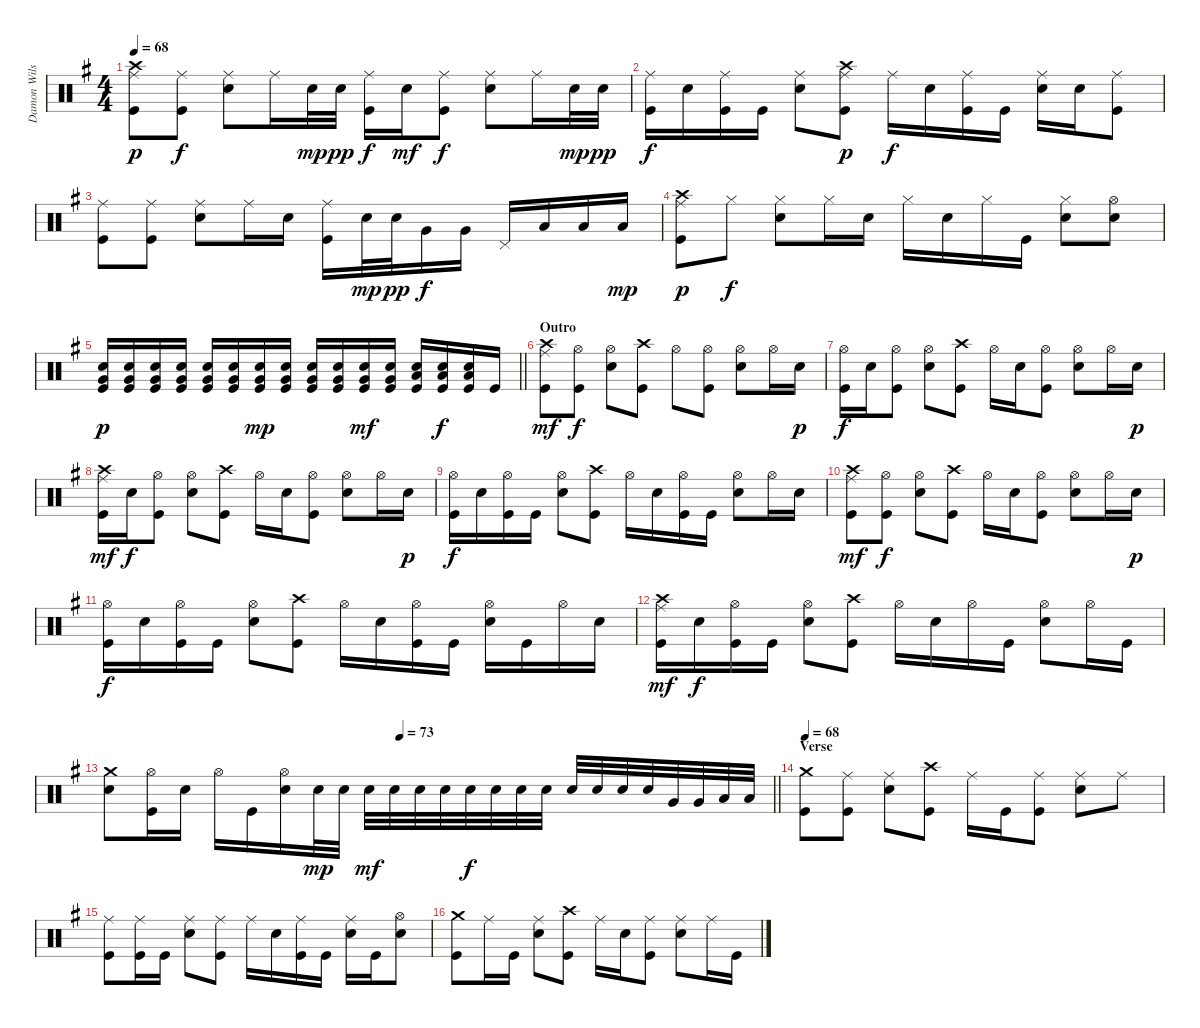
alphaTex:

\track ("Damon Wilson" "Damon Wils") {instrument percussion}
\staff {score}
\articulation defaults
\ts (4 4)
\tempo 68
\clef neutral
\ks g
("Ride (middle)" "Crash high (hit)" "Kick (hit)").8{dy p} ("Ride (middle)" "Kick (hit)").8{dy f} ("Ride (middle)" "Electric Snare (hit)").8 "Ride (middle)".16 "Electric Snare (hit)".32{dy mp} "Electric Snare (hit)".32{dy pp} ("Ride (middle)" "Kick (hit)").16{dy f} "Electric Snare (hit)".16{dy mf} ("Ride (middle)" "Kick (hit)").8{dy f} ("Ride (middle)" "Electric Snare (hit)").8 "Ride (middle)".16 "Electric Snare (hit)".32{dy mp} "Electric Snare (hit)".32{dy pp} |
("Ride (middle)" "Kick (hit)").16{dy f} "Electric Snare (hit)".16 ("Ride (middle)" "Kick (hit)").16 "Kick (hit)".16 ("Ride (middle)" "Electric Snare (hit)").8 ("Ride (middle)" "Crash high (hit)" "Kick (hit)").8{dy p} "Ride (middle)".16{dy f} "Electric Snare (hit)".16 ("Ride (middle)" "Kick (hit)").16 "Kick (hit)".16 ("Ride (middle)" "Electric Snare (hit)").16 "Electric Snare (hit)".16 ("Ride (middle)" "Kick (hit)").8 |
("Ride (middle)" "Kick (hit)").8 ("Ride (middle)" "Kick (hit)").8 ("Ride (middle)" "Electric Snare (hit)").8 "Ride (middle)".16 "Electric Snare (hit)".16 ("Ride (middle)" "Kick (hit)").16 "Electric Snare (hit)".32{dy mp} "Electric Snare (hit)".32{dy pp} "Very Low Tom (hit)".16{dy f} "Very Low Tom (hit)".16 "Pedal Hi-Hat (hit)".16 "Low Floor Tom (hit)".16 "Low Floor Tom (hit)".16 "Low Floor Tom (hit)".16{dy mp} |
("Ride (middle)" "Crash high (hit)" "Kick (hit)").8{dy p} "Hi-Hat (closed)".8{dy f} ("Hi-Hat (closed)" "Electric Snare (hit)").8 "Hi-Hat (closed)".16 "Electric Snare (hit)".16 "Hi-Hat (closed)".16 "Electric Snare (hit)".16 "Hi-Hat (closed)".16 "Kick (hit)".16 ("Hi-Hat (closed)" "Electric Snare (hit)").8 ("Hi-Hat (open)" "Electric Snare (hit)").8 |
\barLineRight lightlight
("Very Low Tom (hit)" "Electric Snare (hit)" "Kick (hit)").16{dy p} ("Very Low Tom (hit)" "Electric Snare (hit)" "Kick (hit)").16 ("Very Low Tom (hit)" "Electric Snare (hit)" "Kick (hit)").16 ("Very Low Tom (hit)" "Electric Snare (hit)" "Kick (hit)").16 ("Very Low Tom (hit)" "Electric Snare (hit)" "Kick (hit)").16 ("Very Low Tom (hit)" "Electric Snare (hit)" "Kick (hit)").16 ("Very Low Tom (hit)" "Electric Snare (hit)" "Kick (hit)").16{dy mp} ("Very Low Tom (hit)" "Electric Snare (hit)" "Kick (hit)").16 ("Very Low Tom (hit)" "Electric Snare (hit)" "Kick (hit)").16 ("Very Low Tom (hit)" "Electric Snare (hit)" "Kick (hit)").16 ("Very Low Tom (hit)" "Electric Snare (hit)" "Kick (hit)").16{dy mf} ("Very Low Tom (hit)" "Electric Snare (hit)" "Kick (hit)").16 ("Low Floor Tom (hit)" "Electric Snare (hit)" "Kick (hit)").16 ("Low Floor Tom (hit)" "Electric Snare (hit)" "Kick (hit)").16{dy f} ("Low Floor Tom (hit)" "Electric Snare (hit)" "Kick (hit)").16 "Kick (hit)".16 |
\section ("" "Outro")
("Ride (middle)" "Crash high (hit)" "Kick (hit)").8{dy mf} ("Hi-Hat (open)" "Kick (hit)").8{dy f} ("Hi-Hat (open)" "Electric Snare (hit)").8 ("Crash high (hit)" "Kick (hit)").8 "Hi-Hat (open)".8 ("Hi-Hat (open)" "Kick (hit)").8 ("Hi-Hat (open)" "Electric Snare (hit)").8 "Hi-Hat (open)".16 "Electric Snare (hit)".16{dy p} |
("Hi-Hat (open)" "Kick (hit)").16{dy f} "Electric Snare (hit)".16 ("Hi-Hat (open)" "Kick (hit)").8 ("Hi-Hat (open)" "Electric Snare (hit)").8 ("Crash high (hit)" "Kick (hit)").8 "Hi-Hat (open)".16 "Electric Snare (hit)".16 ("Hi-Hat (open)" "Kick (hit)").8 ("Hi-Hat (open)" "Electric Snare (hit)").8 "Hi-Hat (open)".16 "Electric Snare (hit)".16{dy p} |
("Ride (middle)" "Crash high (hit)" "Kick (hit)").16{dy mf} "Electric Snare (hit)".16{dy f} ("Hi-Hat (open)" "Kick (hit)").8 ("Hi-Hat (open)" "Electric Snare (hit)").8 ("Crash high (hit)" "Kick (hit)").8 "Hi-Hat (open)".16 "Electric Snare (hit)".16 ("Hi-Hat (open)" "Kick (hit)").8 ("Hi-Hat (open)" "Electric Snare (hit)").8 "Hi-Hat (open)".16 "Electric Snare (hit)".16{dy p} |
("Hi-Hat (open)" "Kick (hit)").16{dy f} "Electric Snare (hit)".16 ("Hi-Hat (open)" "Kick (hit)").16 "Kick (hit)".16 ("Hi-Hat (open)" "Electric Snare (hit)").8 ("Crash high (hit)" "Kick (hit)").8 "Hi-Hat (open)".16 "Electric Snare (hit)".16 ("Hi-Hat (open)" "Kick (hit)").16 "Kick (hit)".16 ("Hi-Hat (open)" "Electric Snare (hit)").8 "Hi-Hat (open)".16 "Electric Snare (hit)".16 |
("Ride (middle)" "Crash high (hit)" "Kick (hit)").8{dy mf} ("Hi-Hat (open)" "Kick (hit)").8{dy f} ("Hi-Hat (open)" "Electric Snare (hit)").8 ("Crash high (hit)" "Kick (hit)").8 "Hi-Hat (open)".16 "Electric Snare (hit)".16 ("Hi-Hat (open)" "Kick (hit)").8 ("Hi-Hat (open)" "Electric Snare (hit)").8 "Hi-Hat (open)".16 "Electric Snare (hit)".16{dy p} |
("Hi-Hat (open)" "Kick (hit)").16{dy f} "Electric Snare (hit)".16 ("Hi-Hat (open)" "Kick (hit)").16 "Kick (hit)".16 ("Hi-Hat (open)" "Electric Snare (hit)").8 ("Crash high (hit)" "Kick (hit)").8 "Hi-Hat (open)".16 "Electric Snare (hit)".16 ("Hi-Hat (open)" "Kick (hit)").16 "Kick (hit)".16 ("Hi-Hat (open)" "Electric Snare (hit)").16 "Kick (hit)".16 "Hi-Hat (open)".16 "Electric Snare (hit)".16 |
("Ride (middle)" "Crash high (hit)" "Kick (hit)").16{dy mf} "Electric Snare (hit)".16{dy f} ("Hi-Hat (open)" "Kick (hit)").16 "Kick (hit)".16 ("Hi-Hat (open)" "Electric Snare (hit)").8 ("Crash high (hit)" "Kick (hit)").8 "Hi-Hat (open)".16 "Electric Snare (hit)".16 "Hi-Hat (open)".16 "Kick (hit)".16 ("Hi-Hat (open)" "Electric Snare (hit)").8 "Hi-Hat (open)".16 "Kick (hit)".16 |
\tempo (73 0.4375)
\barLineRight lightlight
("Crash medium (hit)" "Electric Snare (hit)").8 ("Hi-Hat (open)" "Kick (hit)").16 "Electric Snare (hit)".16 "Hi-Hat (open)".16 "Kick (hit)".16 ("Hi-Hat (open)" "Electric Snare (hit)").16 "Electric Snare (hit)".32{dy mp} "Electric Snare (hit)".32 "Electric Snare (hit)".32{dy mf} "Electric Snare (hit)".32 "Electric Snare (hit)".32 "Electric Snare (hit)".32 "Electric Snare (hit)".32{dy f} "Electric Snare (hit)".32 "Electric Snare (hit)".32 "Electric Snare (hit)".32 "Electric Snare (hit)".32 "Electric Snare (hit)".32 "Electric Snare (hit)".32 "Electric Snare (hit)".32 "Very Low Tom (hit)".32 "Very Low Tom (hit)".32 "Low Floor Tom (hit)".32 "Low Floor Tom (hit)".32 |
\section ("" "Verse")
\tempo 68
("Crash medium (hit)" "Kick (hit)").8 ("Ride (middle)" "Kick (hit)").8 ("Ride (middle)" "Electric Snare (hit)").8 ("Crash high (hit)" "Kick (hit)").8 "Ride (middle)".16 "Kick (hit)".16 ("Ride (middle)" "Kick (hit)").8 ("Ride (middle)" "Electric Snare (hit)").8 "Ride (middle)".8 |
("Ride (middle)" "Kick (hit)").8 ("Ride (middle)" "Kick (hit)").16 "Kick (hit)".16 ("Ride (middle)" "Electric Snare (hit)").8 ("Ride (middle)" "Kick (hit)").8 "Ride (middle)".16 "Electric Snare (hit)".16 ("Ride (middle)" "Kick (hit)").16 "Kick (hit)".16 ("Ride (middle)" "Electric Snare (hit)").16 "Kick (hit)".16 ("Hi-Hat (open)" "Electric Snare (hit)").8 |
("Crash medium (hit)" "Kick (hit)").8 "Ride (middle)".16 "Kick (hit)".16 ("Ride (middle)" "Electric Snare (hit)").8 ("Crash high (hit)" "Kick (hit)").8 "Ride (middle)".16 "Electric Snare (hit)".16 ("Ride (middle)" "Kick (hit)").8 ("Ride (middle)" "Electric Snare (hit)").8 "Ride (middle)".16 "Kick (hit)".16
